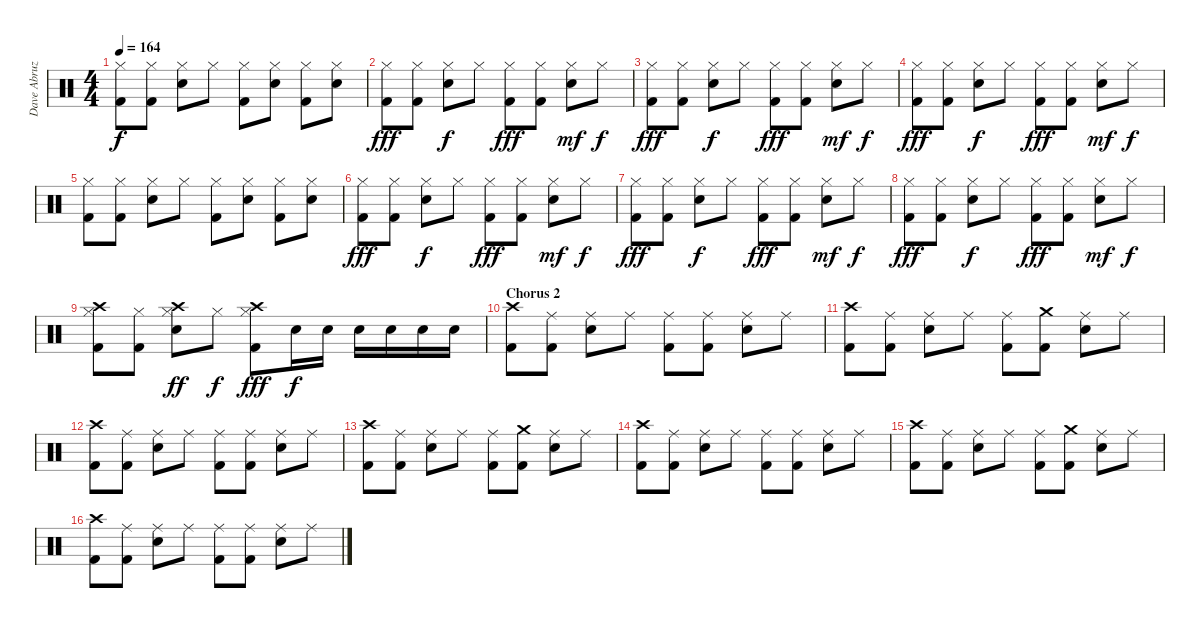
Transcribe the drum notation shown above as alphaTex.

\track ("Dave Abruzzese" "Dave Abruz") {instrument percussion}
\staff {score}
\articulation defaults
\ts (4 4)
\tempo 164
\clef neutral
\ks c
("Kick (hit) 2" "Hi-Hat (closed)").8{dy f} ("Kick (hit) 2" "Hi-Hat (closed)").8 ("Electric Snare (hit)" "Hi-Hat (closed)").8 "Hi-Hat (closed)".8 ("Kick (hit) 2" "Hi-Hat (closed)").8 ("Electric Snare (hit)" "Hi-Hat (closed)").8 ("Kick (hit) 2" "Hi-Hat (closed)").8 ("Electric Snare (hit)" "Hi-Hat (closed)").8 |
("Kick (hit) 2" "Hi-Hat (closed)").8{dy fff} ("Kick (hit) 2" "Hi-Hat (closed)").8 ("Electric Snare (hit)" "Hi-Hat (closed)").8{dy f} "Hi-Hat (closed)".8 ("Kick (hit) 2" "Hi-Hat (closed)").8{dy fff} ("Kick (hit) 2" "Hi-Hat (closed)").8 ("Electric Snare (hit)" "Hi-Hat (closed)").8{dy mf} "Hi-Hat (closed)".8{dy f} |
("Kick (hit) 2" "Hi-Hat (closed)").8{dy fff} ("Kick (hit) 2" "Hi-Hat (closed)").8 ("Electric Snare (hit)" "Hi-Hat (closed)").8{dy f} "Hi-Hat (closed)".8 ("Kick (hit) 2" "Hi-Hat (closed)").8{dy fff} ("Kick (hit) 2" "Hi-Hat (closed)").8 ("Electric Snare (hit)" "Hi-Hat (closed)").8{dy mf} "Hi-Hat (closed)".8{dy f} |
("Kick (hit) 2" "Hi-Hat (closed)").8{dy fff} ("Kick (hit) 2" "Hi-Hat (closed)").8 ("Electric Snare (hit)" "Hi-Hat (closed)").8{dy f} "Hi-Hat (closed)".8 ("Kick (hit) 2" "Hi-Hat (closed)").8{dy fff} ("Kick (hit) 2" "Hi-Hat (closed)").8 ("Electric Snare (hit)" "Hi-Hat (closed)").8{dy mf} "Hi-Hat (closed)".8{dy f} |
("Kick (hit) 2" "Hi-Hat (closed)").8 ("Kick (hit) 2" "Hi-Hat (closed)").8 ("Electric Snare (hit)" "Hi-Hat (closed)").8 "Hi-Hat (closed)".8 ("Kick (hit) 2" "Hi-Hat (closed)").8 ("Electric Snare (hit)" "Hi-Hat (closed)").8 ("Kick (hit) 2" "Hi-Hat (closed)").8 ("Electric Snare (hit)" "Hi-Hat (closed)").8 |
("Kick (hit) 2" "Hi-Hat (closed)").8{dy fff} ("Kick (hit) 2" "Hi-Hat (closed)").8 ("Electric Snare (hit)" "Hi-Hat (closed)").8{dy f} "Hi-Hat (closed)".8 ("Kick (hit) 2" "Hi-Hat (closed)").8{dy fff} ("Kick (hit) 2" "Hi-Hat (closed)").8 ("Electric Snare (hit)" "Hi-Hat (closed)").8{dy mf} "Hi-Hat (closed)".8{dy f} |
("Kick (hit) 2" "Hi-Hat (closed)").8{dy fff} ("Kick (hit) 2" "Hi-Hat (closed)").8 ("Electric Snare (hit)" "Hi-Hat (closed)").8{dy f} "Hi-Hat (closed)".8 ("Kick (hit) 2" "Hi-Hat (closed)").8{dy fff} ("Kick (hit) 2" "Hi-Hat (closed)").8 ("Electric Snare (hit)" "Hi-Hat (closed)").8{dy mf} "Hi-Hat (closed)".8{dy f} |
("Kick (hit) 2" "Hi-Hat (closed)").8{dy fff} ("Kick (hit) 2" "Hi-Hat (closed)").8 ("Electric Snare (hit)" "Hi-Hat (closed)").8{dy f} "Hi-Hat (closed)".8 ("Kick (hit) 2" "Hi-Hat (closed)").8{dy fff} ("Kick (hit) 2" "Hi-Hat (closed)").8 ("Electric Snare (hit)" "Hi-Hat (closed)").8{dy mf} "Hi-Hat (closed)".8{dy f} |
("Crash high (hit)" "Kick (hit) 2" "Hi-Hat (closed)").8 ("Kick (hit) 2" "Hi-Hat (closed)").8 ("Crash high (hit)" "Electric Snare (hit)" "Hi-Hat (closed)").8{dy ff} "Hi-Hat (closed)".8{dy f} ("Crash high (hit)" "Kick (hit) 2" "Hi-Hat (closed)").8{dy fff} "Electric Snare (hit)".16{dy f} "Electric Snare (hit)".16 "Electric Snare (hit)".16 "Electric Snare (hit)".16 "Electric Snare (hit)".16 "Electric Snare (hit)".16 |
\section ("" "Chorus 2")
("Kick (hit) 2" "Crash high (hit)").8 ("Kick (hit) 2" "Ride (middle)").8 ("Electric Snare (hit)" "Ride (middle)").8 "Ride (middle)".8 ("Kick (hit) 2" "Ride (middle)").8 ("Kick (hit) 2" "Ride (middle)").8 ("Electric Snare (hit)" "Ride (middle)").8 "Ride (middle)".8 |
("Kick (hit) 2" "Crash high (hit)").8 ("Kick (hit) 2" "Ride (middle)").8 ("Electric Snare (hit)" "Ride (middle)").8 "Ride (middle)".8 ("Kick (hit) 2" "Ride (middle)").8 ("Kick (hit) 2" "Crash medium (hit)").8 ("Electric Snare (hit)" "Ride (middle)").8 "Ride (middle)".8 |
("Kick (hit) 2" "Crash high (hit)").8 ("Kick (hit) 2" "Ride (middle)").8 ("Electric Snare (hit)" "Ride (middle)").8 "Ride (middle)".8 ("Kick (hit) 2" "Ride (middle)").8 ("Kick (hit) 2" "Ride (middle)").8 ("Electric Snare (hit)" "Ride (middle)").8 "Ride (middle)".8 |
("Kick (hit) 2" "Crash high (hit)").8 ("Kick (hit) 2" "Ride (middle)").8 ("Electric Snare (hit)" "Ride (middle)").8 "Ride (middle)".8 ("Kick (hit) 2" "Ride (middle)").8 ("Kick (hit) 2" "Crash medium (hit)").8 ("Electric Snare (hit)" "Ride (middle)").8 "Ride (middle)".8 |
("Kick (hit) 2" "Crash high (hit)").8 ("Kick (hit) 2" "Ride (middle)").8 ("Electric Snare (hit)" "Ride (middle)").8 "Ride (middle)".8 ("Kick (hit) 2" "Ride (middle)").8 ("Kick (hit) 2" "Ride (middle)").8 ("Electric Snare (hit)" "Ride (middle)").8 "Ride (middle)".8 |
("Kick (hit) 2" "Crash high (hit)").8 ("Kick (hit) 2" "Ride (middle)").8 ("Electric Snare (hit)" "Ride (middle)").8 "Ride (middle)".8 ("Kick (hit) 2" "Ride (middle)").8 ("Kick (hit) 2" "Crash medium (hit)").8 ("Electric Snare (hit)" "Ride (middle)").8 "Ride (middle)".8 |
("Kick (hit) 2" "Crash high (hit)").8 ("Kick (hit) 2" "Ride (middle)").8 ("Electric Snare (hit)" "Ride (middle)").8 "Ride (middle)".8 ("Kick (hit) 2" "Ride (middle)").8 ("Kick (hit) 2" "Ride (middle)").8 ("Electric Snare (hit)" "Ride (middle)").8 "Ride (middle)".8
